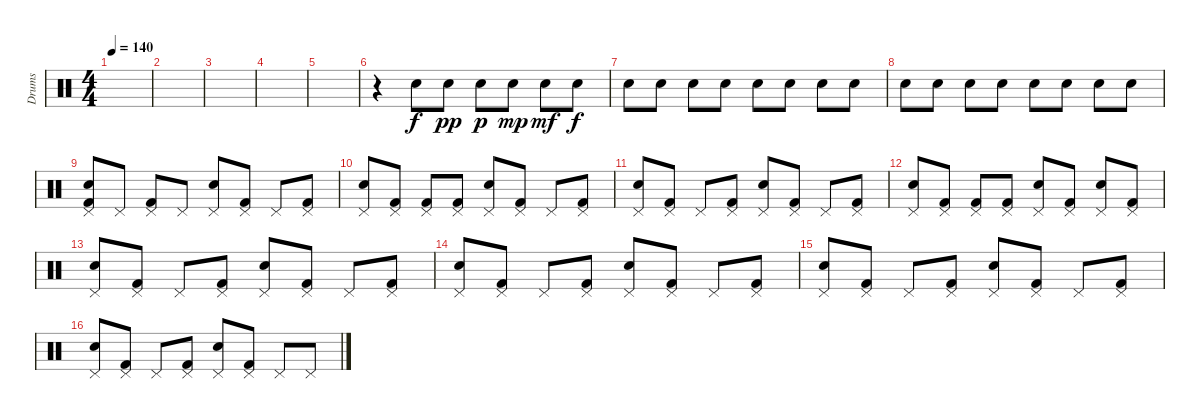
\track ("Drums" "Drums") {instrument percussion}
\staff {score}
\articulation defaults
\ts (4 4)
\tempo 140
\clef neutral
\ks c
|
|
|
|
|
r.4 "Electric Snare (hit)".8 "Electric Snare (hit)".8{dy pp} "Electric Snare (hit)".8{dy p} "Electric Snare (hit)".8{dy mp} "Electric Snare (hit)".8{dy mf} "Electric Snare (hit)".8{dy f} |
"Electric Snare (hit)".8 "Electric Snare (hit)".8 "Electric Snare (hit)".8 "Electric Snare (hit)".8 "Electric Snare (hit)".8 "Electric Snare (hit)".8 "Electric Snare (hit)".8 "Electric Snare (hit)".8 |
"Electric Snare (hit)".8 "Electric Snare (hit)".8 "Electric Snare (hit)".8 "Electric Snare (hit)".8 "Electric Snare (hit)".8 "Electric Snare (hit)".8 "Electric Snare (hit)".8 "Electric Snare (hit)".8 |
("Pedal Hi-Hat (hit)" "Electric Snare (hit)" "Kick (hit) 2").8 "Pedal Hi-Hat (hit)".8 ("Pedal Hi-Hat (hit)" "Kick (hit) 2").8 "Pedal Hi-Hat (hit)".8 ("Pedal Hi-Hat (hit)" "Electric Snare (hit)").8 ("Pedal Hi-Hat (hit)" "Kick (hit) 2").8 "Pedal Hi-Hat (hit)".8 ("Pedal Hi-Hat (hit)" "Kick (hit) 2").8 |
("Pedal Hi-Hat (hit)" "Electric Snare (hit)").8 ("Pedal Hi-Hat (hit)" "Kick (hit) 2").8 ("Pedal Hi-Hat (hit)" "Kick (hit) 2").8 ("Pedal Hi-Hat (hit)" "Kick (hit) 2").8 ("Pedal Hi-Hat (hit)" "Electric Snare (hit)").8 ("Pedal Hi-Hat (hit)" "Kick (hit) 2").8 "Pedal Hi-Hat (hit)".8 ("Pedal Hi-Hat (hit)" "Kick (hit) 2").8 |
("Pedal Hi-Hat (hit)" "Electric Snare (hit)").8 ("Pedal Hi-Hat (hit)" "Kick (hit) 2").8 "Pedal Hi-Hat (hit)".8 ("Pedal Hi-Hat (hit)" "Kick (hit) 2").8 ("Pedal Hi-Hat (hit)" "Electric Snare (hit)").8 ("Pedal Hi-Hat (hit)" "Kick (hit) 2").8 "Pedal Hi-Hat (hit)".8 ("Pedal Hi-Hat (hit)" "Kick (hit) 2").8 |
("Pedal Hi-Hat (hit)" "Electric Snare (hit)").8 ("Pedal Hi-Hat (hit)" "Kick (hit) 2").8 ("Pedal Hi-Hat (hit)" "Kick (hit) 2").8 ("Pedal Hi-Hat (hit)" "Kick (hit) 2").8 ("Pedal Hi-Hat (hit)" "Electric Snare (hit)").8 ("Pedal Hi-Hat (hit)" "Kick (hit) 2").8 ("Pedal Hi-Hat (hit)" "Electric Snare (hit)").8 ("Pedal Hi-Hat (hit)" "Kick (hit) 2").8 |
("Pedal Hi-Hat (hit)" "Electric Snare (hit)").8 ("Pedal Hi-Hat (hit)" "Kick (hit) 2").8 "Pedal Hi-Hat (hit)".8 ("Pedal Hi-Hat (hit)" "Kick (hit) 2").8 ("Pedal Hi-Hat (hit)" "Electric Snare (hit)").8 ("Pedal Hi-Hat (hit)" "Kick (hit) 2").8 "Pedal Hi-Hat (hit)".8 ("Pedal Hi-Hat (hit)" "Kick (hit) 2").8 |
("Pedal Hi-Hat (hit)" "Electric Snare (hit)").8 ("Pedal Hi-Hat (hit)" "Kick (hit) 2").8 "Pedal Hi-Hat (hit)".8 ("Pedal Hi-Hat (hit)" "Kick (hit) 2").8 ("Pedal Hi-Hat (hit)" "Electric Snare (hit)").8 ("Pedal Hi-Hat (hit)" "Kick (hit) 2").8 "Pedal Hi-Hat (hit)".8 ("Pedal Hi-Hat (hit)" "Kick (hit) 2").8 |
("Pedal Hi-Hat (hit)" "Electric Snare (hit)").8 ("Pedal Hi-Hat (hit)" "Kick (hit) 2").8 "Pedal Hi-Hat (hit)".8 ("Pedal Hi-Hat (hit)" "Kick (hit) 2").8 ("Pedal Hi-Hat (hit)" "Electric Snare (hit)").8 ("Pedal Hi-Hat (hit)" "Kick (hit) 2").8 "Pedal Hi-Hat (hit)".8 ("Pedal Hi-Hat (hit)" "Kick (hit) 2").8 |
("Pedal Hi-Hat (hit)" "Electric Snare (hit)").8 ("Pedal Hi-Hat (hit)" "Kick (hit) 2").8 "Pedal Hi-Hat (hit)".8 ("Pedal Hi-Hat (hit)" "Kick (hit) 2").8 ("Pedal Hi-Hat (hit)" "Electric Snare (hit)").8 ("Pedal Hi-Hat (hit)" "Kick (hit) 2").8 "Pedal Hi-Hat (hit)".8 "Pedal Hi-Hat (hit)".8
